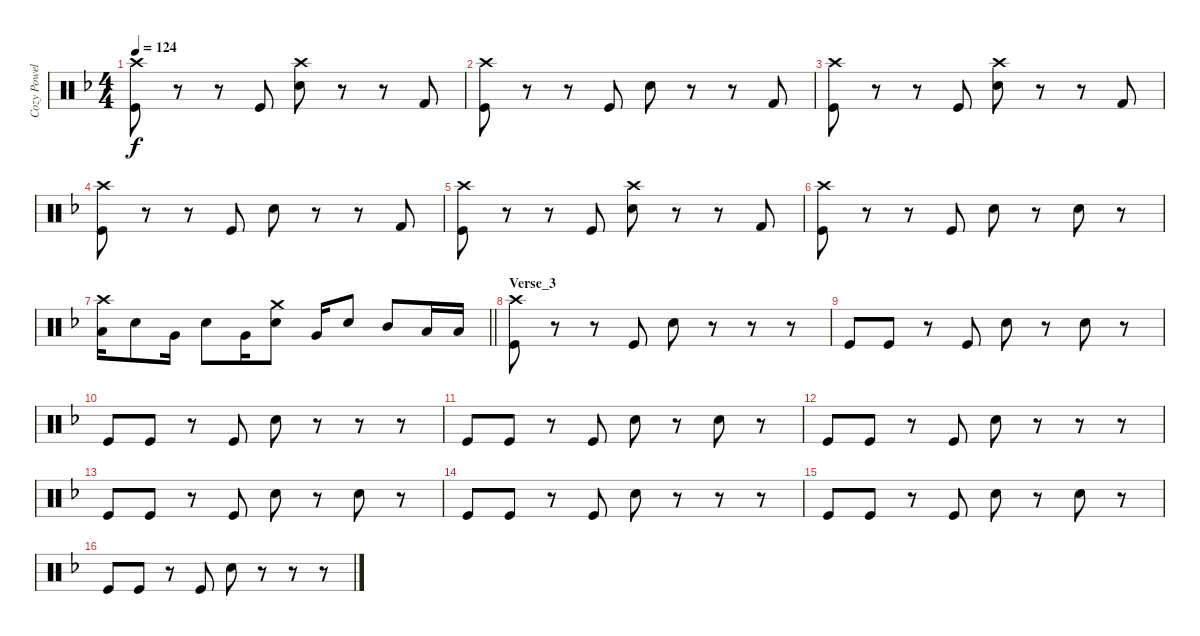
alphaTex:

\track ("Cozy Powell" "Cozy Powel") {instrument percussion}
\staff {score}
\articulation defaults
\ts (4 4)
\tempo 124
\clef neutral
\ks f
("Kick (hit)" "Crash high (hit)").8{dy f} r.8 r.8 "Kick (hit)".8 ("Snare (hit) 2" "Crash high (hit)").8 r.8 r.8 "Kick (hit) 2".8 |
("Kick (hit)" "Crash high (hit)").8 r.8 r.8 "Kick (hit)".8 "Snare (hit) 2".8 r.8 r.8 "Kick (hit) 2".8 |
("Kick (hit)" "Crash high (hit)").8 r.8 r.8 "Kick (hit)".8 ("Snare (hit) 2" "Crash high (hit)").8 r.8 r.8 "Kick (hit) 2".8 |
("Kick (hit)" "Crash high (hit)").8 r.8 r.8 "Kick (hit)".8 "Snare (hit) 2".8 r.8 r.8 "Kick (hit) 2".8 |
("Kick (hit)" "Crash high (hit)").8 r.8 r.8 "Kick (hit)".8 ("Snare (hit) 2" "Crash high (hit)").8 r.8 r.8 "Kick (hit) 2".8 |
("Kick (hit)" "Crash high (hit)").8 r.8 r.8 "Kick (hit)".8 "Snare (hit) 2".8 r.8 "Snare (hit) 2".8 r.8 |
\barLineRight lightlight
("Low Floor Tom (hit)" "Crash high (hit)").16 "Snare (hit) 2".8 "Very Low Tom (hit)".16 "Snare (hit) 2".8 "Very Low Tom (hit)".16 ("Snare (hit) 2" "Crash medium (hit)").8 "Very Low Tom (hit)".16 "Snare (hit) 2".8 "Mid Tom (hit)".8 "Low Tom (hit)".16 "Low Tom (hit)".16 |
\section ("" "Verse_3")
("Kick (hit)" "Crash high (hit)").8 r.8 r.8 "Kick (hit)".8 "Snare (hit) 2".8 r.8 r.8 r.8 |
"Kick (hit)".8 "Kick (hit)".8 r.8 "Kick (hit)".8 "Snare (hit) 2".8 r.8 "Snare (hit) 2".8 r.8 |
"Kick (hit)".8 "Kick (hit)".8 r.8 "Kick (hit)".8 "Snare (hit) 2".8 r.8 r.8 r.8 |
"Kick (hit)".8 "Kick (hit)".8 r.8 "Kick (hit)".8 "Snare (hit) 2".8 r.8 "Snare (hit) 2".8 r.8 |
"Kick (hit)".8 "Kick (hit)".8 r.8 "Kick (hit)".8 "Snare (hit) 2".8 r.8 r.8 r.8 |
"Kick (hit)".8 "Kick (hit)".8 r.8 "Kick (hit)".8 "Snare (hit) 2".8 r.8 "Snare (hit) 2".8 r.8 |
"Kick (hit)".8 "Kick (hit)".8 r.8 "Kick (hit)".8 "Snare (hit) 2".8 r.8 r.8 r.8 |
"Kick (hit)".8 "Kick (hit)".8 r.8 "Kick (hit)".8 "Snare (hit) 2".8 r.8 "Snare (hit) 2".8 r.8 |
"Kick (hit)".8 "Kick (hit)".8 r.8 "Kick (hit)".8 "Snare (hit) 2".8 r.8 r.8 r.8
